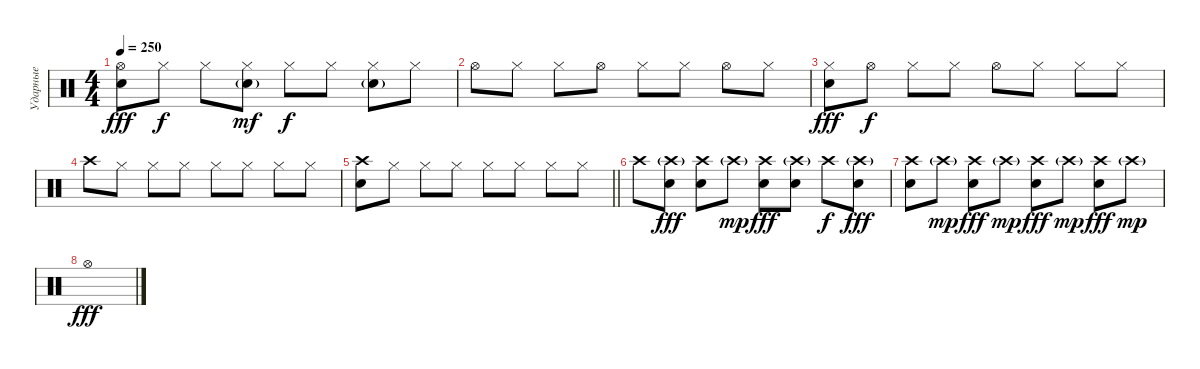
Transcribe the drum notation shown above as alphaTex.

\track ("Ударные" "Ударные") {instrument percussion}
\staff {score}
\articulation defaults
\ts (4 4)
\tempo 250
\clef neutral
\ks c
("Hi-Hat (open)" "Snare (hit) 2").8{dy fff} "Hi-Hat (closed)".8{dy f} "Hi-Hat (closed)".8 ("Hi-Hat (closed)" "Snare (hit) 2"{g}).8{dy mf} "Hi-Hat (closed)".8{dy f} "Hi-Hat (closed)".8 ("Hi-Hat (closed)" "Snare (hit) 2"{g}).8 "Hi-Hat (closed)".8 |
"Hi-Hat (open)".8 "Hi-Hat (closed)".8 "Hi-Hat (closed)".8 "Hi-Hat (open)".8 "Hi-Hat (closed)".8 "Hi-Hat (closed)".8 "Hi-Hat (open)".8 "Hi-Hat (closed)".8 |
("Hi-Hat (closed)" "Snare (hit) 2").8{dy fff} "Hi-Hat (open)".8{dy f} "Hi-Hat (closed)".8 "Hi-Hat (closed)".8 "Hi-Hat (open)".8 "Hi-Hat (closed)".8 "Hi-Hat (closed)".8 "Hi-Hat (closed)".8 |
"Crash high (hit)".8 "Hi-Hat (closed)".8 "Hi-Hat (closed)".8 "Hi-Hat (closed)".8 "Hi-Hat (closed)".8 "Hi-Hat (closed)".8 "Hi-Hat (closed)".8 "Hi-Hat (closed)".8 |
\barLineRight lightlight
("Crash high (hit)" "Snare (hit) 2").8 "Hi-Hat (closed)".8 "Hi-Hat (closed)".8 "Hi-Hat (closed)".8 "Hi-Hat (closed)".8 "Hi-Hat (closed)".8 "Hi-Hat (closed)".8 "Hi-Hat (closed)".8 |
"Crash high (hit)".8 ("Crash high (hit)"{g} "Snare (hit) 2").8{dy fff} ("Crash high (hit)" "Snare (hit) 2").8 "Crash high (hit)"{g}.8{dy mp} ("Crash high (hit)" "Snare (hit) 2").8{dy fff} ("Crash high (hit)"{g} "Snare (hit) 2").8 "Crash high (hit)".8{dy f} ("Crash high (hit)"{g} "Snare (hit) 2").8{dy fff} |
("Crash high (hit)" "Snare (hit) 2").8 "Crash high (hit)"{g}.8{dy mp} ("Crash high (hit)" "Snare (hit) 2").8{dy fff} "Crash high (hit)"{g}.8{dy mp} ("Crash high (hit)" "Snare (hit) 2").8{dy fff} "Crash high (hit)"{g}.8{dy mp} ("Crash high (hit)" "Snare (hit) 2").8{dy fff} "Crash high (hit)"{g}.8{dy mp} |
"Hi-Hat (open)".1{dy fff}
